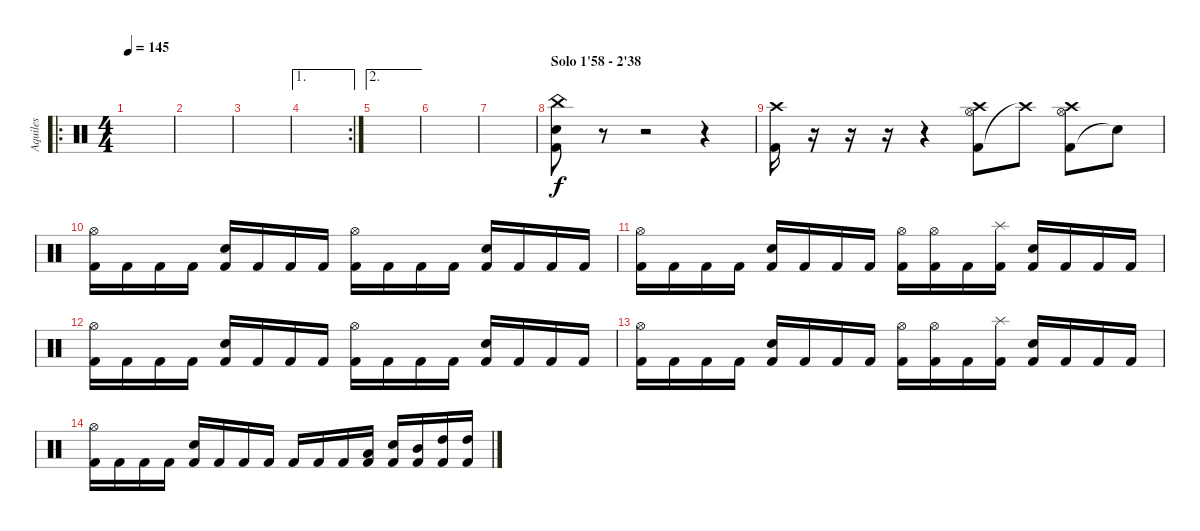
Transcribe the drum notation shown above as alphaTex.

\track ("Aquiles" "Aquiles") {instrument percussion}
\staff {score}
\articulation defaults
\ro
\ts (4 4)
\tempo 145
\clef neutral
\ks c
|
|
|
\ae 1
\rc 2
|
\ae 2
|
|
|
\section ("" "Solo 1'58 - 2'38")
("China (hit)" "Electric Snare (hit)" "Kick (hit) 2").8 r.8 r.2 r.4 |
("Kick (hit) 2" "Crash high (hit)").16 r.16 r.16 r.16 r.4 ("Kick (hit) 2" "Hi-Hat (open)" "Crash high (hit)").8 "Crash high (hit)"{t}.8 ("Kick (hit) 2" "Hi-Hat (open)" "Crash high (hit)").8 "Snare (hit)"{t}.8 |
("Kick (hit) 2" "Hi-Hat (open)").16 "Kick (hit) 2".16 "Kick (hit) 2".16 "Kick (hit) 2".16 ("Kick (hit) 2" "Electric Snare (hit)").16 "Kick (hit) 2".16 "Kick (hit) 2".16 "Kick (hit) 2".16 ("Kick (hit) 2" "Hi-Hat (open)").16 "Kick (hit) 2".16 "Kick (hit) 2".16 "Kick (hit) 2".16 ("Kick (hit) 2" "Electric Snare (hit)").16 "Kick (hit) 2".16 "Kick (hit) 2".16 "Kick (hit) 2".16 |
("Kick (hit) 2" "Hi-Hat (open)").16 "Kick (hit) 2".16 "Kick (hit) 2".16 "Kick (hit) 2".16 ("Kick (hit) 2" "Electric Snare (hit)").16 "Kick (hit) 2".16 "Kick (hit) 2".16 "Kick (hit) 2".16 ("Kick (hit) 2" "Hi-Hat (open)").16 ("Kick (hit) 2" "Hi-Hat (open)").16 "Kick (hit) 2".16 ("Kick (hit) 2" "Splash (hit)").16 ("Kick (hit) 2" "Electric Snare (hit)").16 "Kick (hit) 2".16 "Kick (hit) 2".16 "Kick (hit) 2".16 |
("Kick (hit) 2" "Hi-Hat (open)").16 "Kick (hit) 2".16 "Kick (hit) 2".16 "Kick (hit) 2".16 ("Kick (hit) 2" "Electric Snare (hit)").16 "Kick (hit) 2".16 "Kick (hit) 2".16 "Kick (hit) 2".16 ("Kick (hit) 2" "Hi-Hat (open)").16 "Kick (hit) 2".16 "Kick (hit) 2".16 "Kick (hit) 2".16 ("Kick (hit) 2" "Electric Snare (hit)").16 "Kick (hit) 2".16 "Kick (hit) 2".16 "Kick (hit) 2".16 |
("Kick (hit) 2" "Hi-Hat (open)").16 "Kick (hit) 2".16 "Kick (hit) 2".16 "Kick (hit) 2".16 ("Kick (hit) 2" "Electric Snare (hit)").16 "Kick (hit) 2".16 "Kick (hit) 2".16 "Kick (hit) 2".16 ("Kick (hit) 2" "Hi-Hat (open)").16 ("Kick (hit) 2" "Hi-Hat (open)").16 "Kick (hit) 2".16 ("Kick (hit) 2" "Splash (hit)").16 ("Kick (hit) 2" "Electric Snare (hit)").16 "Kick (hit) 2".16 "Kick (hit) 2".16 "Kick (hit) 2".16 |
("Kick (hit) 2" "Hi-Hat (open)").16 "Kick (hit) 2".16 "Kick (hit) 2".16 "Kick (hit) 2".16 ("Kick (hit) 2" "Electric Snare (hit)").16 "Kick (hit) 2".16 "Kick (hit) 2".16 "Kick (hit) 2".16 "Kick (hit) 2".16 "Kick (hit) 2".16 "Kick (hit) 2".16 ("Kick (hit) 2" "Low Tom (hit)").16 ("Kick (hit) 2" "Electric Snare (hit)").16 ("Kick (hit) 2" "Mid Tom (hit)").16 ("Kick (hit) 2" "High Tom (hit)").16 ("Kick (hit) 2" "High Tom (hit)").16
